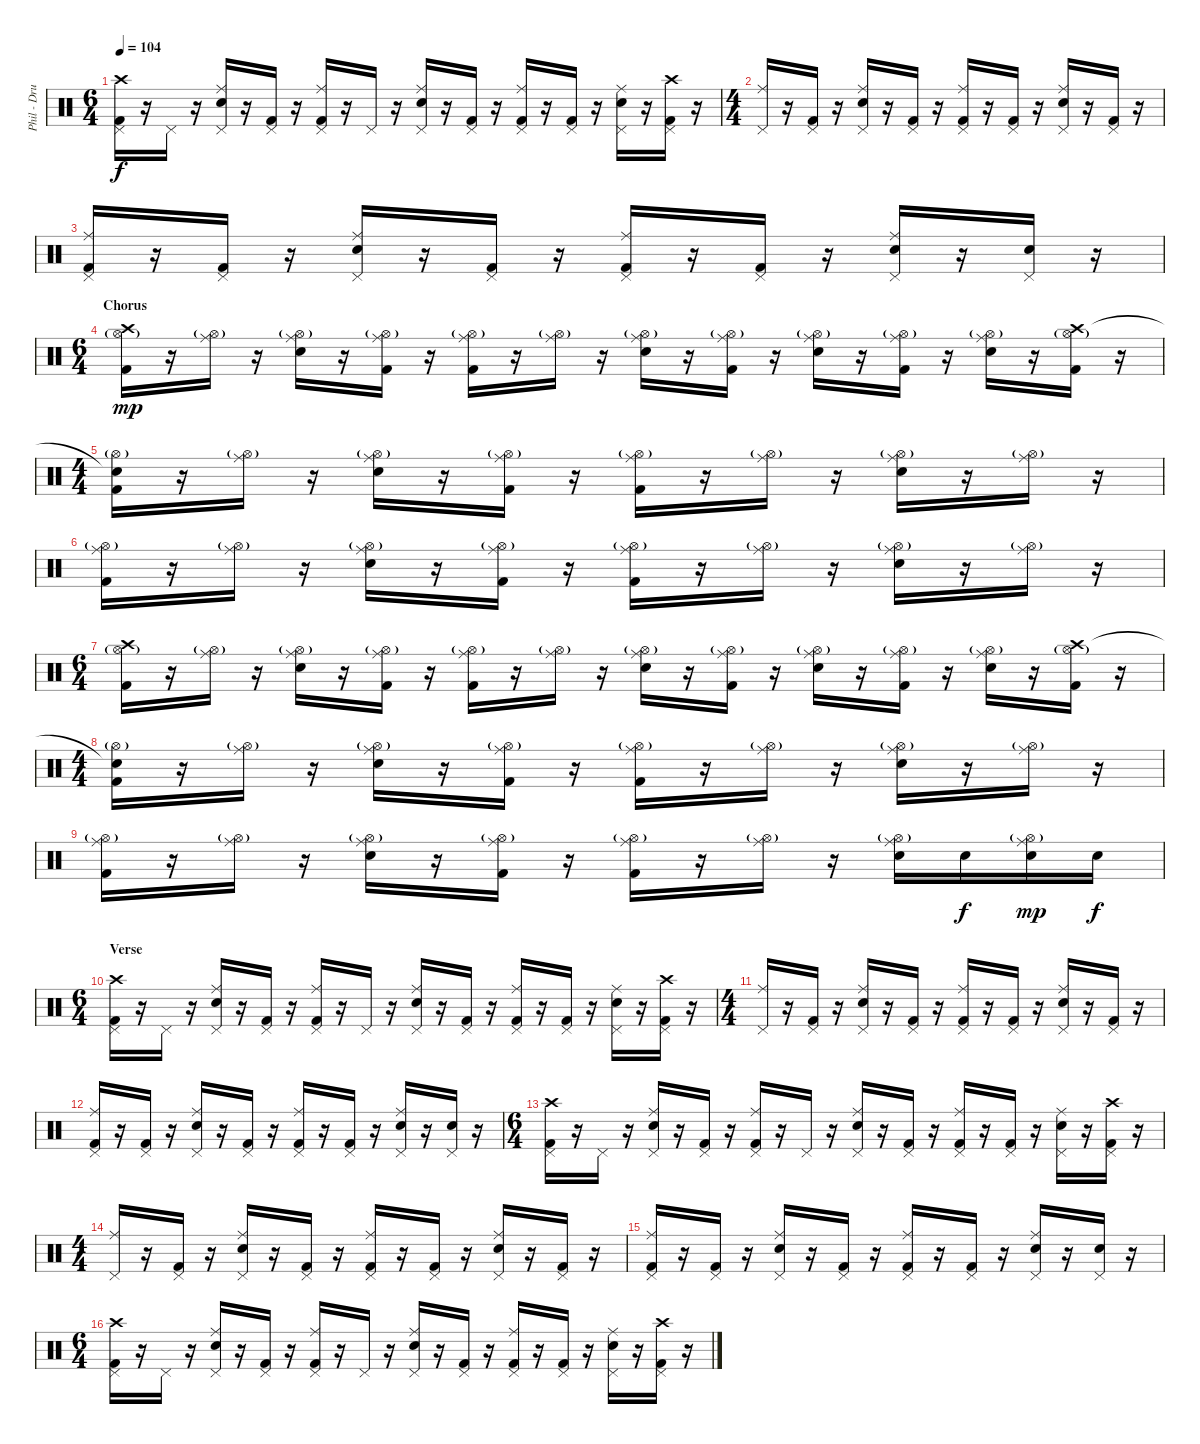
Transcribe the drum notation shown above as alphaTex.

\track ("Phil - Drums" "Phil - Dru") {instrument percussion}
\staff {score}
\articulation defaults
\ts (6 4)
\tempo 104
\clef neutral
\ks c
("Crash high (hit)" "Kick (hit) 2" "Pedal Hi-Hat (hit)").16{dy f} r.16 "Pedal Hi-Hat (hit)".16 r.16 ("Ride (middle)" "Snare (hit) 2" "Pedal Hi-Hat (hit)").16 r.16 ("Kick (hit) 2" "Pedal Hi-Hat (hit)").16 r.16 ("Ride (middle)" "Kick (hit) 2" "Pedal Hi-Hat (hit)").16 r.16 "Pedal Hi-Hat (hit)".16 r.16 ("Ride (middle)" "Snare (hit) 2" "Pedal Hi-Hat (hit)").16 r.16 ("Kick (hit) 2" "Pedal Hi-Hat (hit)").16 r.16 ("Ride (middle)" "Kick (hit) 2" "Pedal Hi-Hat (hit)").16 r.16 ("Kick (hit) 2" "Pedal Hi-Hat (hit)").16 r.16 ("Ride (middle)" "Snare (hit) 2" "Pedal Hi-Hat (hit)").16 r.16 ("Crash high (hit)" "Kick (hit) 2" "Pedal Hi-Hat (hit)").16 r.16 |
\ts (4 4)
("Ride (middle)" "Pedal Hi-Hat (hit)").16 r.16 ("Kick (hit) 2" "Pedal Hi-Hat (hit)").16 r.16 ("Ride (middle)" "Snare (hit) 2" "Pedal Hi-Hat (hit)").16 r.16 ("Kick (hit) 2" "Pedal Hi-Hat (hit)").16 r.16 ("Ride (middle)" "Kick (hit) 2" "Pedal Hi-Hat (hit)").16 r.16 ("Kick (hit) 2" "Pedal Hi-Hat (hit)").16 r.16 ("Ride (middle)" "Snare (hit) 2" "Pedal Hi-Hat (hit)").16 r.16 ("Kick (hit) 2" "Pedal Hi-Hat (hit)").16 r.16 |
("Ride (middle)" "Kick (hit) 2" "Pedal Hi-Hat (hit)").16 r.16 ("Kick (hit) 2" "Pedal Hi-Hat (hit)").16 r.16 ("Ride (middle)" "Snare (hit) 2" "Pedal Hi-Hat (hit)").16 r.16 ("Kick (hit) 2" "Pedal Hi-Hat (hit)").16 r.16 ("Ride (middle)" "Kick (hit) 2" "Pedal Hi-Hat (hit)").16 r.16 ("Kick (hit) 2" "Pedal Hi-Hat (hit)").16 r.16 ("Ride (middle)" "Snare (hit) 2" "Pedal Hi-Hat (hit)").16 r.16 ("Snare (hit) 2" "Pedal Hi-Hat (hit)").16 r.16 |
\ts (6 4)
\section ("" "Chorus")
("Crash high (hit)" "Kick (hit) 2" "Hi-Hat (open)"{g}).16{dy mp} r.16 ("Ride (middle)" "Hi-Hat (open)"{g}).16 r.16 ("Ride (middle)" "Electric Snare (hit)" "Hi-Hat (open)"{g}).16 r.16 ("Ride (middle)" "Kick (hit) 2" "Hi-Hat (open)"{g}).16 r.16 ("Ride (middle)" "Kick (hit) 2" "Hi-Hat (open)"{g}).16 r.16 ("Ride (middle)" "Hi-Hat (open)"{g}).16 r.16 ("Ride (middle)" "Electric Snare (hit)" "Hi-Hat (open)"{g}).16 r.16 ("Ride (middle)" "Kick (hit) 2" "Hi-Hat (open)"{g}).16 r.16 ("Ride (middle)" "Electric Snare (hit)" "Hi-Hat (open)"{g}).16 r.16 ("Ride (middle)" "Kick (hit) 2" "Hi-Hat (open)"{g}).16 r.16 ("Ride (middle)" "Electric Snare (hit)" "Hi-Hat (open)"{g}).16 r.16 ("Crash high (hit)" "Kick (hit) 2" "Hi-Hat (open)"{g}).16 r.16 |
\ts (4 4)
("Snare (hit)"{t} "Kick (hit) 2" "Hi-Hat (open)"{g}).16 r.16 ("Ride (middle)" "Hi-Hat (open)"{g}).16 r.16 ("Ride (middle)" "Electric Snare (hit)" "Hi-Hat (open)"{g}).16 r.16 ("Ride (middle)" "Kick (hit) 2" "Hi-Hat (open)"{g}).16 r.16 ("Ride (middle)" "Kick (hit) 2" "Hi-Hat (open)"{g}).16 r.16 ("Ride (middle)" "Hi-Hat (open)"{g}).16 r.16 ("Ride (middle)" "Electric Snare (hit)" "Hi-Hat (open)"{g}).16 r.16 ("Ride (middle)" "Hi-Hat (open)"{g}).16 r.16 |
("Ride (middle)" "Kick (hit) 2" "Hi-Hat (open)"{g}).16 r.16 ("Ride (middle)" "Hi-Hat (open)"{g}).16 r.16 ("Ride (middle)" "Electric Snare (hit)" "Hi-Hat (open)"{g}).16 r.16 ("Ride (middle)" "Kick (hit) 2" "Hi-Hat (open)"{g}).16 r.16 ("Ride (middle)" "Kick (hit) 2" "Hi-Hat (open)"{g}).16 r.16 ("Ride (middle)" "Hi-Hat (open)"{g}).16 r.16 ("Ride (middle)" "Electric Snare (hit)" "Hi-Hat (open)"{g}).16 r.16 ("Ride (middle)" "Hi-Hat (open)"{g}).16 r.16 |
\ts (6 4)
("Crash high (hit)" "Kick (hit) 2" "Hi-Hat (open)"{g}).16 r.16 ("Ride (middle)" "Hi-Hat (open)"{g}).16 r.16 ("Ride (middle)" "Electric Snare (hit)" "Hi-Hat (open)"{g}).16 r.16 ("Ride (middle)" "Kick (hit) 2" "Hi-Hat (open)"{g}).16 r.16 ("Ride (middle)" "Kick (hit) 2" "Hi-Hat (open)"{g}).16 r.16 ("Ride (middle)" "Hi-Hat (open)"{g}).16 r.16 ("Ride (middle)" "Electric Snare (hit)" "Hi-Hat (open)"{g}).16 r.16 ("Ride (middle)" "Kick (hit) 2" "Hi-Hat (open)"{g}).16 r.16 ("Ride (middle)" "Electric Snare (hit)" "Hi-Hat (open)"{g}).16 r.16 ("Ride (middle)" "Kick (hit) 2" "Hi-Hat (open)"{g}).16 r.16 ("Ride (middle)" "Electric Snare (hit)" "Hi-Hat (open)"{g}).16 r.16 ("Crash high (hit)" "Kick (hit) 2" "Hi-Hat (open)"{g}).16 r.16 |
\ts (4 4)
("Snare (hit)"{t} "Kick (hit) 2" "Hi-Hat (open)"{g}).16 r.16 ("Ride (middle)" "Hi-Hat (open)"{g}).16 r.16 ("Ride (middle)" "Electric Snare (hit)" "Hi-Hat (open)"{g}).16 r.16 ("Ride (middle)" "Kick (hit) 2" "Hi-Hat (open)"{g}).16 r.16 ("Ride (middle)" "Kick (hit) 2" "Hi-Hat (open)"{g}).16 r.16 ("Ride (middle)" "Hi-Hat (open)"{g}).16 r.16 ("Ride (middle)" "Electric Snare (hit)" "Hi-Hat (open)"{g}).16 r.16 ("Ride (middle)" "Hi-Hat (open)"{g}).16 r.16 |
("Ride (middle)" "Kick (hit) 2" "Hi-Hat (open)"{g}).16 r.16 ("Ride (middle)" "Hi-Hat (open)"{g}).16 r.16 ("Ride (middle)" "Electric Snare (hit)" "Hi-Hat (open)"{g}).16 r.16 ("Ride (middle)" "Kick (hit) 2" "Hi-Hat (open)"{g}).16 r.16 ("Ride (middle)" "Kick (hit) 2" "Hi-Hat (open)"{g}).16 r.16 ("Ride (middle)" "Hi-Hat (open)"{g}).16 r.16 ("Ride (middle)" "Electric Snare (hit)" "Hi-Hat (open)"{g}).16 "Electric Snare (hit)".16{dy f} ("Ride (middle)" "Electric Snare (hit)" "Hi-Hat (open)"{g}).16{dy mp} "Electric Snare (hit)".16{dy f} |
\ts (6 4)
\section ("" "Verse")
("Crash high (hit)" "Kick (hit) 2" "Pedal Hi-Hat (hit)").16 r.16 "Pedal Hi-Hat (hit)".16 r.16 ("Ride (middle)" "Snare (hit) 2" "Pedal Hi-Hat (hit)").16 r.16 ("Kick (hit) 2" "Pedal Hi-Hat (hit)").16 r.16 ("Ride (middle)" "Kick (hit) 2" "Pedal Hi-Hat (hit)").16 r.16 "Pedal Hi-Hat (hit)".16 r.16 ("Ride (middle)" "Snare (hit) 2" "Pedal Hi-Hat (hit)").16 r.16 ("Kick (hit) 2" "Pedal Hi-Hat (hit)").16 r.16 ("Ride (middle)" "Kick (hit) 2" "Pedal Hi-Hat (hit)").16 r.16 ("Kick (hit) 2" "Pedal Hi-Hat (hit)").16 r.16 ("Ride (middle)" "Snare (hit) 2" "Pedal Hi-Hat (hit)").16 r.16 ("Crash high (hit)" "Kick (hit) 2" "Pedal Hi-Hat (hit)").16 r.16 |
\ts (4 4)
("Ride (middle)" "Pedal Hi-Hat (hit)").16 r.16 ("Kick (hit) 2" "Pedal Hi-Hat (hit)").16 r.16 ("Ride (middle)" "Snare (hit) 2" "Pedal Hi-Hat (hit)").16 r.16 ("Kick (hit) 2" "Pedal Hi-Hat (hit)").16 r.16 ("Ride (middle)" "Kick (hit) 2" "Pedal Hi-Hat (hit)").16 r.16 ("Kick (hit) 2" "Pedal Hi-Hat (hit)").16 r.16 ("Ride (middle)" "Snare (hit) 2" "Pedal Hi-Hat (hit)").16 r.16 ("Kick (hit) 2" "Pedal Hi-Hat (hit)").16 r.16 |
("Ride (middle)" "Kick (hit) 2" "Pedal Hi-Hat (hit)").16 r.16 ("Kick (hit) 2" "Pedal Hi-Hat (hit)").16 r.16 ("Ride (middle)" "Snare (hit) 2" "Pedal Hi-Hat (hit)").16 r.16 ("Kick (hit) 2" "Pedal Hi-Hat (hit)").16 r.16 ("Ride (middle)" "Kick (hit) 2" "Pedal Hi-Hat (hit)").16 r.16 ("Kick (hit) 2" "Pedal Hi-Hat (hit)").16 r.16 ("Ride (middle)" "Snare (hit) 2" "Pedal Hi-Hat (hit)").16 r.16 ("Snare (hit) 2" "Pedal Hi-Hat (hit)").16 r.16 |
\ts (6 4)
("Crash high (hit)" "Kick (hit) 2" "Pedal Hi-Hat (hit)").16 r.16 "Pedal Hi-Hat (hit)".16 r.16 ("Ride (middle)" "Snare (hit) 2" "Pedal Hi-Hat (hit)").16 r.16 ("Kick (hit) 2" "Pedal Hi-Hat (hit)").16 r.16 ("Ride (middle)" "Kick (hit) 2" "Pedal Hi-Hat (hit)").16 r.16 "Pedal Hi-Hat (hit)".16 r.16 ("Ride (middle)" "Snare (hit) 2" "Pedal Hi-Hat (hit)").16 r.16 ("Kick (hit) 2" "Pedal Hi-Hat (hit)").16 r.16 ("Ride (middle)" "Kick (hit) 2" "Pedal Hi-Hat (hit)").16 r.16 ("Kick (hit) 2" "Pedal Hi-Hat (hit)").16 r.16 ("Ride (middle)" "Snare (hit) 2" "Pedal Hi-Hat (hit)").16 r.16 ("Crash high (hit)" "Kick (hit) 2" "Pedal Hi-Hat (hit)").16 r.16 |
\ts (4 4)
("Ride (middle)" "Pedal Hi-Hat (hit)").16 r.16 ("Kick (hit) 2" "Pedal Hi-Hat (hit)").16 r.16 ("Ride (middle)" "Snare (hit) 2" "Pedal Hi-Hat (hit)").16 r.16 ("Kick (hit) 2" "Pedal Hi-Hat (hit)").16 r.16 ("Ride (middle)" "Kick (hit) 2" "Pedal Hi-Hat (hit)").16 r.16 ("Kick (hit) 2" "Pedal Hi-Hat (hit)").16 r.16 ("Ride (middle)" "Snare (hit) 2" "Pedal Hi-Hat (hit)").16 r.16 ("Kick (hit) 2" "Pedal Hi-Hat (hit)").16 r.16 |
("Ride (middle)" "Kick (hit) 2" "Pedal Hi-Hat (hit)").16 r.16 ("Kick (hit) 2" "Pedal Hi-Hat (hit)").16 r.16 ("Ride (middle)" "Snare (hit) 2" "Pedal Hi-Hat (hit)").16 r.16 ("Kick (hit) 2" "Pedal Hi-Hat (hit)").16 r.16 ("Ride (middle)" "Kick (hit) 2" "Pedal Hi-Hat (hit)").16 r.16 ("Kick (hit) 2" "Pedal Hi-Hat (hit)").16 r.16 ("Ride (middle)" "Snare (hit) 2" "Pedal Hi-Hat (hit)").16 r.16 ("Snare (hit) 2" "Pedal Hi-Hat (hit)").16 r.16 |
\ts (6 4)
("Crash high (hit)" "Kick (hit) 2" "Pedal Hi-Hat (hit)").16 r.16 "Pedal Hi-Hat (hit)".16 r.16 ("Ride (middle)" "Snare (hit) 2" "Pedal Hi-Hat (hit)").16 r.16 ("Kick (hit) 2" "Pedal Hi-Hat (hit)").16 r.16 ("Ride (middle)" "Kick (hit) 2" "Pedal Hi-Hat (hit)").16 r.16 "Pedal Hi-Hat (hit)".16 r.16 ("Ride (middle)" "Snare (hit) 2" "Pedal Hi-Hat (hit)").16 r.16 ("Kick (hit) 2" "Pedal Hi-Hat (hit)").16 r.16 ("Ride (middle)" "Kick (hit) 2" "Pedal Hi-Hat (hit)").16 r.16 ("Kick (hit) 2" "Pedal Hi-Hat (hit)").16 r.16 ("Ride (middle)" "Snare (hit) 2" "Pedal Hi-Hat (hit)").16 r.16 ("Crash high (hit)" "Kick (hit) 2" "Pedal Hi-Hat (hit)").16 r.16
